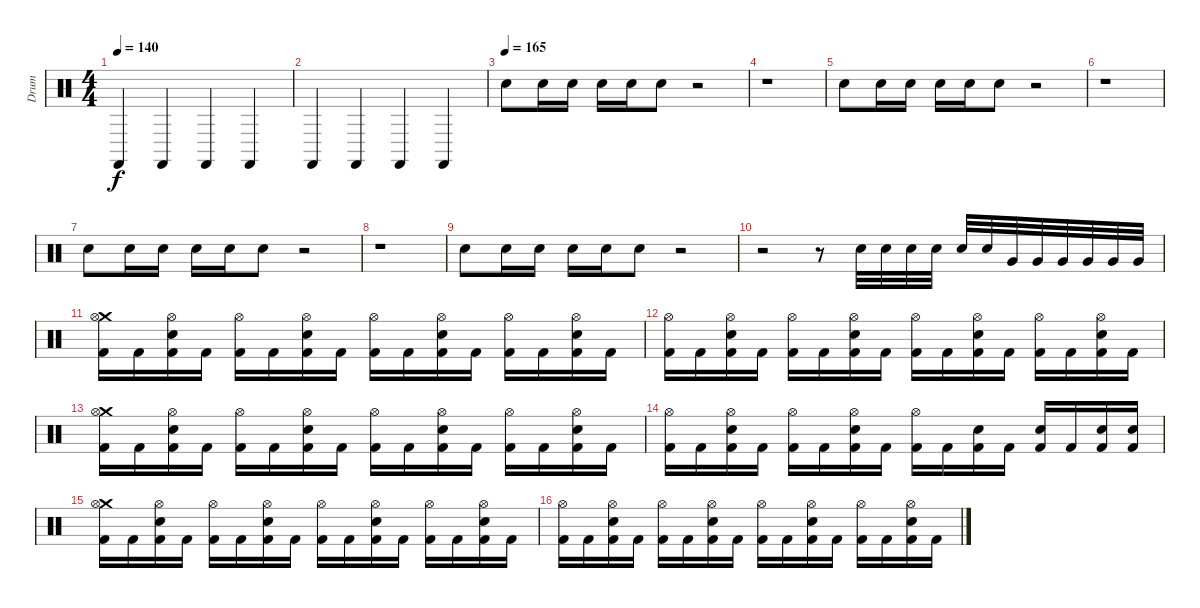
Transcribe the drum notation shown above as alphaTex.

\track ("Drum" "Drum") {instrument percussion}
\staff {score}
\articulation defaults
\ts (4 4)
\tempo 140
\clef neutral
\ks c "Castanets (hit)".4{dy f} "Castanets (hit)".4{balance 16} "Castanets (hit)".4{balance 0} "Castanets (hit)".4{balance 16}
|
"Castanets (hit)".4{balance 0} "Castanets (hit)".4{balance 16} "Castanets (hit)".4{balance 0} "Castanets (hit)".4{balance 16} |
\tempo (165)
"Electric Snare (hit)".8{volume 10} "Electric Snare (hit)".16 "Electric Snare (hit)".16 "Electric Snare (hit)".16 "Electric Snare (hit)".16 "Electric Snare (hit)".8 r.2 |
r.1 |
"Electric Snare (hit)".8{volume 10} "Electric Snare (hit)".16 "Electric Snare (hit)".16 "Electric Snare (hit)".16 "Electric Snare (hit)".16 "Electric Snare (hit)".8 r.2 |
r.1 |
"Electric Snare (hit)".8{volume 10} "Electric Snare (hit)".16 "Electric Snare (hit)".16 "Electric Snare (hit)".16 "Electric Snare (hit)".16 "Electric Snare (hit)".8 r.2 |
r.1 |
"Electric Snare (hit)".8{volume 10} "Electric Snare (hit)".16 "Electric Snare (hit)".16 "Electric Snare (hit)".16 "Electric Snare (hit)".16 "Electric Snare (hit)".8 r.2 |
r.2 r.8 "Electric Snare (hit)".32 "Electric Snare (hit)".32 "Electric Snare (hit)".32 "Electric Snare (hit)".32 "Electric Snare (hit)".32 "Electric Snare (hit)".32 "Very Low Tom (hit)".32 "Very Low Tom (hit)".32 "Very Low Tom (hit)".32 "Very Low Tom (hit)".32 "Very Low Tom (hit)".32 "Very Low Tom (hit)".32 |
("Crash medium (hit)" "Hi-Hat (open)" "Kick (hit) 2").16 "Kick (hit) 2".16 ("Electric Snare (hit)" "Hi-Hat (open)" "Kick (hit) 2").16 "Kick (hit) 2".16 ("Hi-Hat (open)" "Kick (hit) 2").16 "Kick (hit) 2".16 ("Electric Snare (hit)" "Hi-Hat (open)" "Kick (hit) 2").16 "Kick (hit) 2".16 ("Hi-Hat (open)" "Kick (hit) 2").16 "Kick (hit) 2".16 ("Electric Snare (hit)" "Hi-Hat (open)" "Kick (hit) 2").16 "Kick (hit) 2".16 ("Hi-Hat (open)" "Kick (hit) 2").16 "Kick (hit) 2".16 ("Electric Snare (hit)" "Hi-Hat (open)" "Kick (hit) 2").16 "Kick (hit) 2".16 |
("Hi-Hat (open)" "Kick (hit) 2").16 "Kick (hit) 2".16 ("Electric Snare (hit)" "Hi-Hat (open)" "Kick (hit) 2").16 "Kick (hit) 2".16 ("Hi-Hat (open)" "Kick (hit) 2").16 "Kick (hit) 2".16 ("Electric Snare (hit)" "Hi-Hat (open)" "Kick (hit) 2").16 "Kick (hit) 2".16 ("Hi-Hat (open)" "Kick (hit) 2").16 "Kick (hit) 2".16 ("Electric Snare (hit)" "Hi-Hat (open)" "Kick (hit) 2").16 "Kick (hit) 2".16 ("Hi-Hat (open)" "Kick (hit) 2").16 "Kick (hit) 2".16 ("Electric Snare (hit)" "Hi-Hat (open)" "Kick (hit) 2").16 "Kick (hit) 2".16 |
("Crash medium (hit)" "Hi-Hat (open)" "Kick (hit) 2").16 "Kick (hit) 2".16 ("Electric Snare (hit)" "Hi-Hat (open)" "Kick (hit) 2").16 "Kick (hit) 2".16 ("Hi-Hat (open)" "Kick (hit) 2").16 "Kick (hit) 2".16 ("Electric Snare (hit)" "Hi-Hat (open)" "Kick (hit) 2").16 "Kick (hit) 2".16 ("Hi-Hat (open)" "Kick (hit) 2").16 "Kick (hit) 2".16 ("Electric Snare (hit)" "Hi-Hat (open)" "Kick (hit) 2").16 "Kick (hit) 2".16 ("Hi-Hat (open)" "Kick (hit) 2").16 "Kick (hit) 2".16 ("Electric Snare (hit)" "Hi-Hat (open)" "Kick (hit) 2").16 "Kick (hit) 2".16 |
("Hi-Hat (open)" "Kick (hit) 2").16 "Kick (hit) 2".16 ("Electric Snare (hit)" "Hi-Hat (open)" "Kick (hit) 2").16 "Kick (hit) 2".16 ("Hi-Hat (open)" "Kick (hit) 2").16 "Kick (hit) 2".16 ("Electric Snare (hit)" "Hi-Hat (open)" "Kick (hit) 2").16 "Kick (hit) 2".16 ("Hi-Hat (open)" "Kick (hit) 2").16 "Kick (hit) 2".16 ("Electric Snare (hit)" "Kick (hit) 2").16 "Kick (hit) 2".16 ("Electric Snare (hit)" "Kick (hit) 2").16 "Kick (hit) 2".16 ("Electric Snare (hit)" "Kick (hit) 2").16 ("Electric Snare (hit)" "Kick (hit) 2").16 |
("Crash medium (hit)" "Hi-Hat (open)" "Kick (hit) 2").16 "Kick (hit) 2".16 ("Electric Snare (hit)" "Hi-Hat (open)" "Kick (hit) 2").16 "Kick (hit) 2".16 ("Hi-Hat (open)" "Kick (hit) 2").16 "Kick (hit) 2".16 ("Electric Snare (hit)" "Hi-Hat (open)" "Kick (hit) 2").16 "Kick (hit) 2".16 ("Hi-Hat (open)" "Kick (hit) 2").16 "Kick (hit) 2".16 ("Electric Snare (hit)" "Hi-Hat (open)" "Kick (hit) 2").16 "Kick (hit) 2".16 ("Hi-Hat (open)" "Kick (hit) 2").16 "Kick (hit) 2".16 ("Electric Snare (hit)" "Hi-Hat (open)" "Kick (hit) 2").16 "Kick (hit) 2".16 |
("Hi-Hat (open)" "Kick (hit) 2").16 "Kick (hit) 2".16 ("Electric Snare (hit)" "Hi-Hat (open)" "Kick (hit) 2").16 "Kick (hit) 2".16 ("Hi-Hat (open)" "Kick (hit) 2").16 "Kick (hit) 2".16 ("Electric Snare (hit)" "Hi-Hat (open)" "Kick (hit) 2").16 "Kick (hit) 2".16 ("Hi-Hat (open)" "Kick (hit) 2").16 "Kick (hit) 2".16 ("Electric Snare (hit)" "Hi-Hat (open)" "Kick (hit) 2").16 "Kick (hit) 2".16 ("Hi-Hat (open)" "Kick (hit) 2").16 "Kick (hit) 2".16 ("Electric Snare (hit)" "Hi-Hat (open)" "Kick (hit) 2").16 "Kick (hit) 2".16
